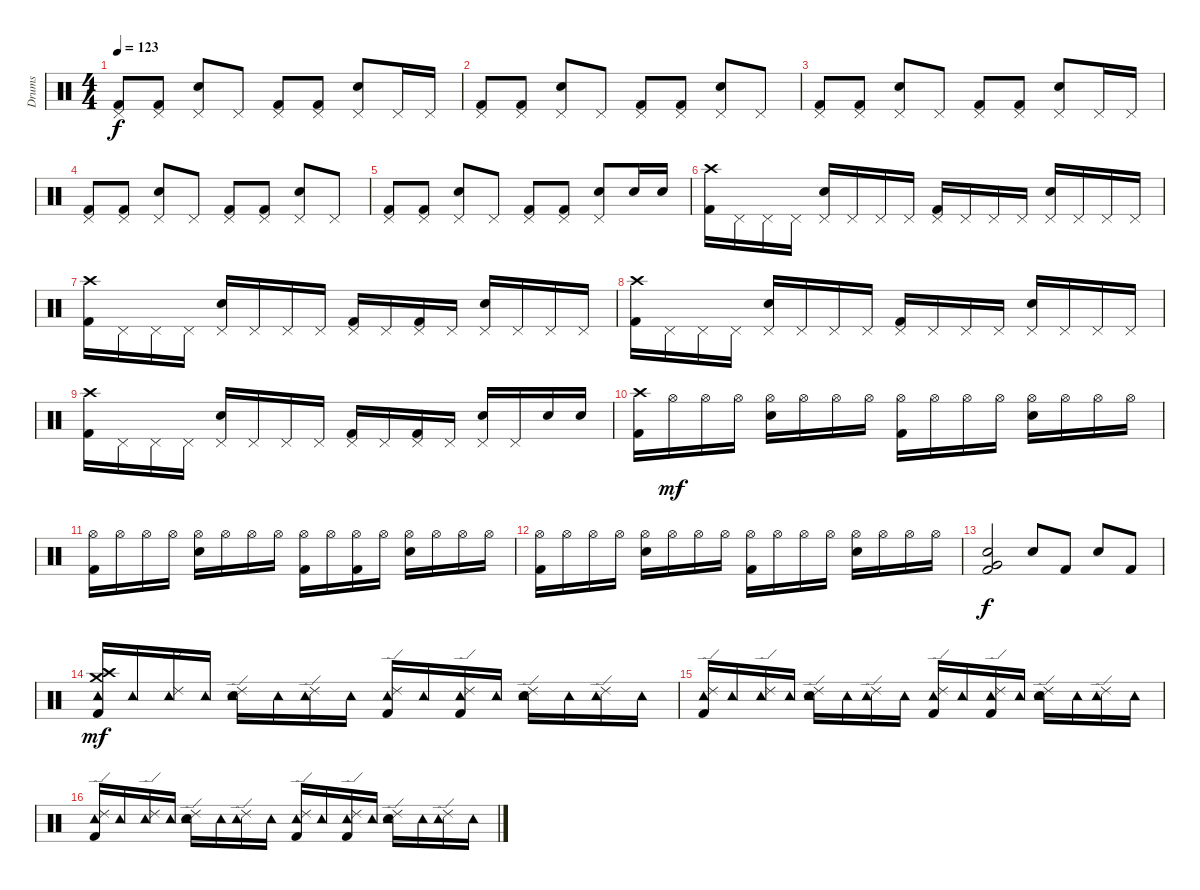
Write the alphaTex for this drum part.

\track ("Drums" "Drums") {instrument percussion}
\staff {score}
\articulation defaults
\ts (4 4)
\tempo 123
\clef neutral
\ks c
("Pedal Hi-Hat (hit)" "Kick (hit) 2").8{dy f} ("Pedal Hi-Hat (hit)" "Kick (hit) 2").8 ("Pedal Hi-Hat (hit)" "Electric Snare (hit)").8 "Pedal Hi-Hat (hit)".8 ("Pedal Hi-Hat (hit)" "Kick (hit) 2").8 ("Pedal Hi-Hat (hit)" "Kick (hit) 2").8 ("Pedal Hi-Hat (hit)" "Electric Snare (hit)").8 "Pedal Hi-Hat (hit)".16 "Pedal Hi-Hat (hit)".16 |
("Pedal Hi-Hat (hit)" "Kick (hit) 2").8 ("Pedal Hi-Hat (hit)" "Kick (hit) 2").8 ("Pedal Hi-Hat (hit)" "Electric Snare (hit)").8 "Pedal Hi-Hat (hit)".8 ("Pedal Hi-Hat (hit)" "Kick (hit) 2").8 ("Pedal Hi-Hat (hit)" "Kick (hit) 2").8 ("Pedal Hi-Hat (hit)" "Electric Snare (hit)").8 "Pedal Hi-Hat (hit)".8 |
("Pedal Hi-Hat (hit)" "Kick (hit) 2").8 ("Pedal Hi-Hat (hit)" "Kick (hit) 2").8 ("Pedal Hi-Hat (hit)" "Electric Snare (hit)").8 "Pedal Hi-Hat (hit)".8 ("Pedal Hi-Hat (hit)" "Kick (hit) 2").8 ("Pedal Hi-Hat (hit)" "Kick (hit) 2").8 ("Pedal Hi-Hat (hit)" "Electric Snare (hit)").8 "Pedal Hi-Hat (hit)".16 "Pedal Hi-Hat (hit)".16 |
("Pedal Hi-Hat (hit)" "Kick (hit) 2").8 ("Pedal Hi-Hat (hit)" "Kick (hit) 2").8 ("Pedal Hi-Hat (hit)" "Electric Snare (hit)").8 "Pedal Hi-Hat (hit)".8 ("Pedal Hi-Hat (hit)" "Kick (hit) 2").8 ("Pedal Hi-Hat (hit)" "Kick (hit) 2").8 ("Pedal Hi-Hat (hit)" "Electric Snare (hit)").8 "Pedal Hi-Hat (hit)".8 |
("Pedal Hi-Hat (hit)" "Kick (hit) 2").8 ("Pedal Hi-Hat (hit)" "Kick (hit) 2").8 ("Pedal Hi-Hat (hit)" "Electric Snare (hit)").8 "Pedal Hi-Hat (hit)".8 ("Pedal Hi-Hat (hit)" "Kick (hit) 2").8 ("Pedal Hi-Hat (hit)" "Kick (hit) 2").8 ("Pedal Hi-Hat (hit)" "Electric Snare (hit)").8 "Electric Snare (hit)".16 "Electric Snare (hit)".16 |
("Crash high (hit)" "Kick (hit) 2").16 "Pedal Hi-Hat (hit)".16 "Pedal Hi-Hat (hit)".16 "Pedal Hi-Hat (hit)".16 ("Pedal Hi-Hat (hit)" "Electric Snare (hit)").16 "Pedal Hi-Hat (hit)".16 "Pedal Hi-Hat (hit)".16 "Pedal Hi-Hat (hit)".16 ("Pedal Hi-Hat (hit)" "Kick (hit) 2").16 "Pedal Hi-Hat (hit)".16 "Pedal Hi-Hat (hit)".16 "Pedal Hi-Hat (hit)".16 ("Pedal Hi-Hat (hit)" "Electric Snare (hit)").16 "Pedal Hi-Hat (hit)".16 "Pedal Hi-Hat (hit)".16 "Pedal Hi-Hat (hit)".16 |
("Crash high (hit)" "Kick (hit) 2").16 "Pedal Hi-Hat (hit)".16 "Pedal Hi-Hat (hit)".16 "Pedal Hi-Hat (hit)".16 ("Pedal Hi-Hat (hit)" "Electric Snare (hit)").16 "Pedal Hi-Hat (hit)".16 "Pedal Hi-Hat (hit)".16 "Pedal Hi-Hat (hit)".16 ("Pedal Hi-Hat (hit)" "Kick (hit) 2").16 "Pedal Hi-Hat (hit)".16 ("Pedal Hi-Hat (hit)" "Kick (hit) 2").16 "Pedal Hi-Hat (hit)".16 ("Pedal Hi-Hat (hit)" "Electric Snare (hit)").16 "Pedal Hi-Hat (hit)".16 "Pedal Hi-Hat (hit)".16 "Pedal Hi-Hat (hit)".16 |
("Crash high (hit)" "Kick (hit) 2").16 "Pedal Hi-Hat (hit)".16 "Pedal Hi-Hat (hit)".16 "Pedal Hi-Hat (hit)".16 ("Pedal Hi-Hat (hit)" "Electric Snare (hit)").16 "Pedal Hi-Hat (hit)".16 "Pedal Hi-Hat (hit)".16 "Pedal Hi-Hat (hit)".16 ("Pedal Hi-Hat (hit)" "Kick (hit) 2").16 "Pedal Hi-Hat (hit)".16 "Pedal Hi-Hat (hit)".16 "Pedal Hi-Hat (hit)".16 ("Pedal Hi-Hat (hit)" "Electric Snare (hit)").16 "Pedal Hi-Hat (hit)".16 "Pedal Hi-Hat (hit)".16 "Pedal Hi-Hat (hit)".16 |
("Crash high (hit)" "Kick (hit) 2").16 "Pedal Hi-Hat (hit)".16 "Pedal Hi-Hat (hit)".16 "Pedal Hi-Hat (hit)".16 ("Pedal Hi-Hat (hit)" "Electric Snare (hit)").16 "Pedal Hi-Hat (hit)".16 "Pedal Hi-Hat (hit)".16 "Pedal Hi-Hat (hit)".16 ("Pedal Hi-Hat (hit)" "Kick (hit) 2").16 "Pedal Hi-Hat (hit)".16 ("Pedal Hi-Hat (hit)" "Kick (hit) 2").16 "Pedal Hi-Hat (hit)".16 ("Pedal Hi-Hat (hit)" "Electric Snare (hit)").16 "Pedal Hi-Hat (hit)".16 "Electric Snare (hit)".16 "Electric Snare (hit)".16 |
("Crash high (hit)" "Kick (hit) 2").16 "Hi-Hat (open)".16{dy mf} "Hi-Hat (open)".16 "Hi-Hat (open)".16 ("Hi-Hat (open)" "Electric Snare (hit)").16 "Hi-Hat (open)".16 "Hi-Hat (open)".16 "Hi-Hat (open)".16 ("Hi-Hat (open)" "Kick (hit) 2").16 "Hi-Hat (open)".16 "Hi-Hat (open)".16 "Hi-Hat (open)".16 ("Hi-Hat (open)" "Electric Snare (hit)").16 "Hi-Hat (open)".16 "Hi-Hat (open)".16 "Hi-Hat (open)".16 |
("Hi-Hat (open)" "Kick (hit) 2").16 "Hi-Hat (open)".16 "Hi-Hat (open)".16 "Hi-Hat (open)".16 ("Hi-Hat (open)" "Electric Snare (hit)").16 "Hi-Hat (open)".16 "Hi-Hat (open)".16 "Hi-Hat (open)".16 ("Hi-Hat (open)" "Kick (hit) 2").16 "Hi-Hat (open)".16 ("Hi-Hat (open)" "Kick (hit) 2").16 "Hi-Hat (open)".16 ("Hi-Hat (open)" "Electric Snare (hit)").16 "Hi-Hat (open)".16 "Hi-Hat (open)".16 "Hi-Hat (open)".16 |
("Hi-Hat (open)" "Kick (hit) 2").16 "Hi-Hat (open)".16 "Hi-Hat (open)".16 "Hi-Hat (open)".16 ("Hi-Hat (open)" "Electric Snare (hit)").16 "Hi-Hat (open)".16 "Hi-Hat (open)".16 "Hi-Hat (open)".16 ("Hi-Hat (open)" "Kick (hit) 2").16 "Hi-Hat (open)".16 "Hi-Hat (open)".16 "Hi-Hat (open)".16 ("Hi-Hat (open)" "Electric Snare (hit)").16 "Hi-Hat (open)".16 "Hi-Hat (open)".16 "Hi-Hat (open)".16 |
("Very Low Tom (hit)" "Electric Snare (hit)" "Kick (hit) 2").2{dy f} "Electric Snare (hit)".8 "Kick (hit) 2".8 "Electric Snare (hit)".8 "Kick (hit) 2".8 |
("Crash high (hit)" "Crash medium (hit)" "Tambourine (hit)" "Kick (hit) 2").16{dy mf} "Tambourine (hit)".16 ("Ride (edge) 2" "Tambourine (hit)").16 "Tambourine (hit)".16 ("Ride (edge) 2" "Electric Snare (hit)" "Tambourine (hit)").16 "Tambourine (hit)".16 ("Ride (edge) 2" "Tambourine (hit)").16 "Tambourine (hit)".16 ("Ride (edge) 2" "Tambourine (hit)" "Kick (hit) 2").16 "Tambourine (hit)".16 ("Ride (edge) 2" "Tambourine (hit)" "Kick (hit) 2").16 "Tambourine (hit)".16 ("Ride (edge) 2" "Electric Snare (hit)" "Tambourine (hit)").16 "Tambourine (hit)".16 ("Ride (edge) 2" "Tambourine (hit)").16 "Tambourine (hit)".16 |
("Ride (edge) 2" "Tambourine (hit)" "Kick (hit) 2").16 "Tambourine (hit)".16 ("Ride (edge) 2" "Tambourine (hit)").16 "Tambourine (hit)".16 ("Ride (edge) 2" "Electric Snare (hit)" "Tambourine (hit)").16 "Tambourine (hit)".16 ("Ride (edge) 2" "Tambourine (hit)").16 "Tambourine (hit)".16 ("Ride (edge) 2" "Tambourine (hit)" "Kick (hit) 2").16 "Tambourine (hit)".16 ("Ride (edge) 2" "Tambourine (hit)" "Kick (hit) 2").16 "Tambourine (hit)".16 ("Ride (edge) 2" "Electric Snare (hit)" "Tambourine (hit)").16 "Tambourine (hit)".16 ("Ride (edge) 2" "Tambourine (hit)").16 "Tambourine (hit)".16 |
("Ride (edge) 2" "Tambourine (hit)" "Kick (hit) 2").16 "Tambourine (hit)".16 ("Ride (edge) 2" "Tambourine (hit)").16 "Tambourine (hit)".16 ("Ride (edge) 2" "Electric Snare (hit)" "Tambourine (hit)").16 "Tambourine (hit)".16 ("Ride (edge) 2" "Tambourine (hit)").16 "Tambourine (hit)".16 ("Ride (edge) 2" "Tambourine (hit)" "Kick (hit) 2").16 "Tambourine (hit)".16 ("Ride (edge) 2" "Tambourine (hit)" "Kick (hit) 2").16 "Tambourine (hit)".16 ("Ride (edge) 2" "Electric Snare (hit)" "Tambourine (hit)").16 "Tambourine (hit)".16 ("Ride (edge) 2" "Tambourine (hit)").16 "Tambourine (hit)".16
